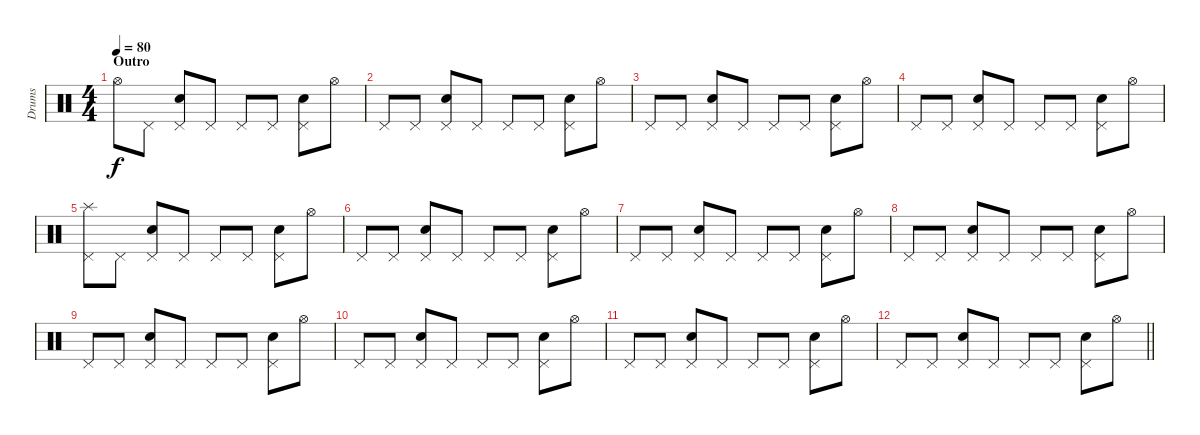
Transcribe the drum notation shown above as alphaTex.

\track ("Drums" "Drums") {instrument percussion}
\staff {score}
\articulation defaults
\ts (4 4)
\section ("" "Outro")
\tempo 80
\clef neutral
\ks c "Hi-Hat (open)".8{dy f} "Pedal Hi-Hat (hit)".8
("Pedal Hi-Hat (hit)" "Snare (hit) 2").8 "Pedal Hi-Hat (hit)".8 "Pedal Hi-Hat (hit)".8 "Pedal Hi-Hat (hit)".8 ("Pedal Hi-Hat (hit)" "Snare (hit) 2").8 "Hi-Hat (open)".8 |
"Pedal Hi-Hat (hit)".8 "Pedal Hi-Hat (hit)".8 ("Pedal Hi-Hat (hit)" "Snare (hit) 2").8 "Pedal Hi-Hat (hit)".8 "Pedal Hi-Hat (hit)".8 "Pedal Hi-Hat (hit)".8 ("Pedal Hi-Hat (hit)" "Snare (hit) 2").8 "Hi-Hat (open)".8 |
"Pedal Hi-Hat (hit)".8 "Pedal Hi-Hat (hit)".8 ("Pedal Hi-Hat (hit)" "Snare (hit) 2").8 "Pedal Hi-Hat (hit)".8 "Pedal Hi-Hat (hit)".8 "Pedal Hi-Hat (hit)".8 ("Pedal Hi-Hat (hit)" "Snare (hit) 2").8 "Hi-Hat (open)".8 |
"Pedal Hi-Hat (hit)".8 "Pedal Hi-Hat (hit)".8 ("Pedal Hi-Hat (hit)" "Snare (hit) 2").8 "Pedal Hi-Hat (hit)".8 "Pedal Hi-Hat (hit)".8 "Pedal Hi-Hat (hit)".8 ("Pedal Hi-Hat (hit)" "Snare (hit) 2").8 "Hi-Hat (open)".8 |
("Pedal Hi-Hat (hit)" "Splash (hit)").8 "Pedal Hi-Hat (hit)".8 ("Pedal Hi-Hat (hit)" "Snare (hit) 2").8 "Pedal Hi-Hat (hit)".8 "Pedal Hi-Hat (hit)".8 "Pedal Hi-Hat (hit)".8 ("Pedal Hi-Hat (hit)" "Snare (hit) 2").8 "Hi-Hat (open)".8 |
"Pedal Hi-Hat (hit)".8 "Pedal Hi-Hat (hit)".8 ("Pedal Hi-Hat (hit)" "Snare (hit) 2").8 "Pedal Hi-Hat (hit)".8 "Pedal Hi-Hat (hit)".8 "Pedal Hi-Hat (hit)".8 ("Pedal Hi-Hat (hit)" "Snare (hit) 2").8 "Hi-Hat (open)".8 |
"Pedal Hi-Hat (hit)".8 "Pedal Hi-Hat (hit)".8 ("Pedal Hi-Hat (hit)" "Snare (hit) 2").8 "Pedal Hi-Hat (hit)".8 "Pedal Hi-Hat (hit)".8 "Pedal Hi-Hat (hit)".8 ("Pedal Hi-Hat (hit)" "Snare (hit) 2").8 "Hi-Hat (open)".8 |
"Pedal Hi-Hat (hit)".8 "Pedal Hi-Hat (hit)".8 ("Pedal Hi-Hat (hit)" "Snare (hit) 2").8 "Pedal Hi-Hat (hit)".8 "Pedal Hi-Hat (hit)".8 "Pedal Hi-Hat (hit)".8 ("Pedal Hi-Hat (hit)" "Snare (hit) 2").8 "Hi-Hat (open)".8 |
"Pedal Hi-Hat (hit)".8 "Pedal Hi-Hat (hit)".8 ("Pedal Hi-Hat (hit)" "Snare (hit) 2").8 "Pedal Hi-Hat (hit)".8 "Pedal Hi-Hat (hit)".8 "Pedal Hi-Hat (hit)".8 ("Pedal Hi-Hat (hit)" "Snare (hit) 2").8 "Hi-Hat (open)".8 |
"Pedal Hi-Hat (hit)".8 "Pedal Hi-Hat (hit)".8 ("Pedal Hi-Hat (hit)" "Snare (hit) 2").8 "Pedal Hi-Hat (hit)".8 "Pedal Hi-Hat (hit)".8 "Pedal Hi-Hat (hit)".8 ("Pedal Hi-Hat (hit)" "Snare (hit) 2").8 "Hi-Hat (open)".8 |
"Pedal Hi-Hat (hit)".8 "Pedal Hi-Hat (hit)".8 ("Pedal Hi-Hat (hit)" "Snare (hit) 2").8 "Pedal Hi-Hat (hit)".8 "Pedal Hi-Hat (hit)".8 "Pedal Hi-Hat (hit)".8 ("Pedal Hi-Hat (hit)" "Snare (hit) 2").8 "Hi-Hat (open)".8 |
\barLineRight lightlight "Pedal Hi-Hat (hit)".8 "Pedal Hi-Hat (hit)".8
("Pedal Hi-Hat (hit)" "Snare (hit) 2").8 "Pedal Hi-Hat (hit)".8 "Pedal Hi-Hat (hit)".8 "Pedal Hi-Hat (hit)".8 ("Pedal Hi-Hat (hit)" "Snare (hit) 2").8 "Hi-Hat (open)".8
